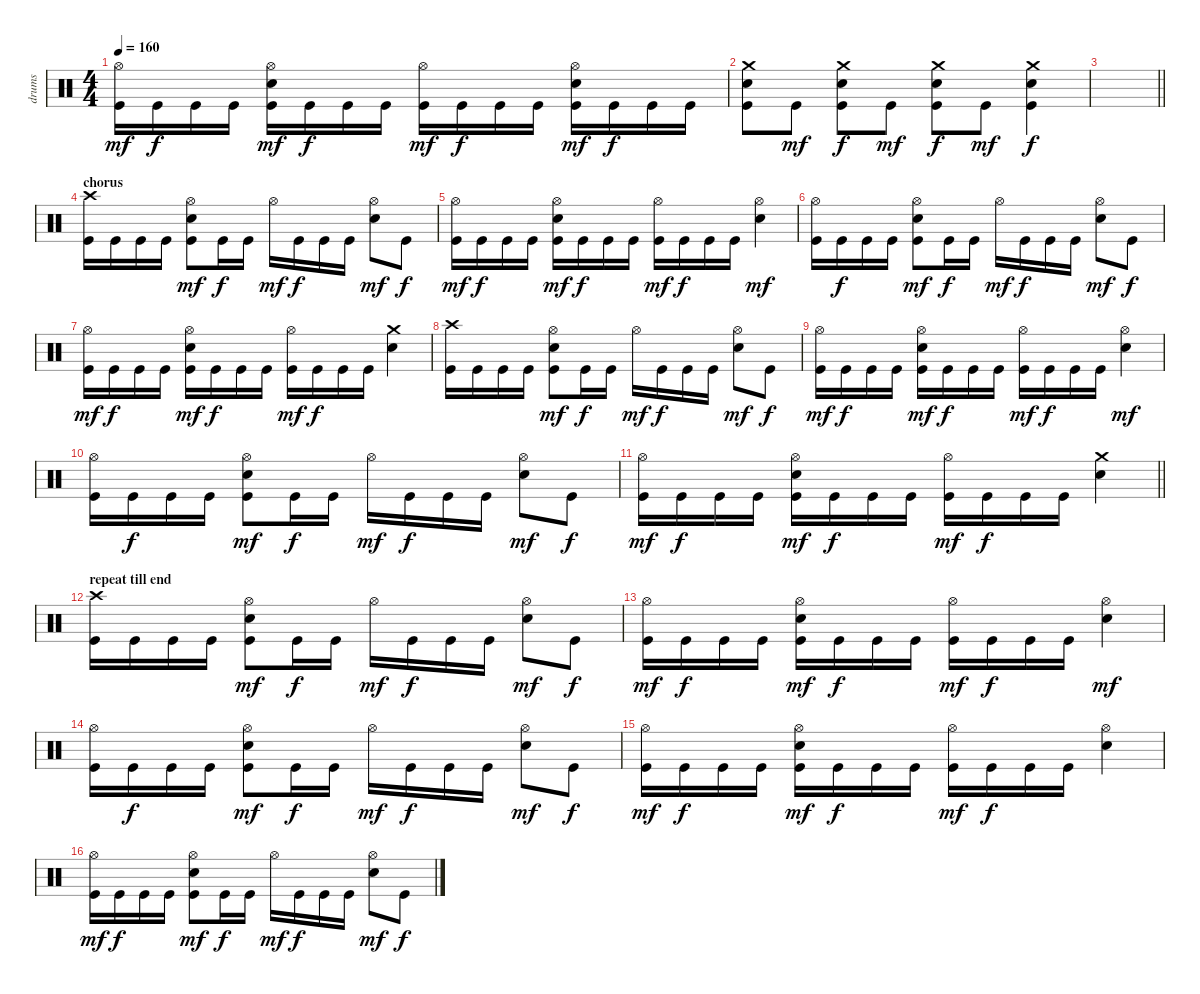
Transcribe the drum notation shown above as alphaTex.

\track ("drums" "drums") {instrument percussion}
\staff {score}
\articulation defaults
\ts (4 4)
\tempo 160
\clef neutral
\ks c
("Hi-Hat (open)" "Kick (hit)").16{dy mf} "Kick (hit)".16{dy f} "Kick (hit)".16 "Kick (hit)".16 ("Hi-Hat (open)" "Electric Snare (hit)" "Kick (hit)").16{dy mf} "Kick (hit)".16{dy f} "Kick (hit)".16 "Kick (hit)".16 ("Hi-Hat (open)" "Kick (hit)").16{dy mf} "Kick (hit)".16{dy f} "Kick (hit)".16 "Kick (hit)".16 ("Hi-Hat (open)" "Electric Snare (hit)" "Kick (hit)").16{dy mf} "Kick (hit)".16{dy f} "Kick (hit)".16 "Kick (hit)".16 |
("Crash medium (hit)" "Electric Snare (hit)" "Kick (hit)").8 "Kick (hit)".8{dy mf} ("Crash medium (hit)" "Electric Snare (hit)" "Kick (hit)").8{dy f} "Kick (hit)".8{dy mf} ("Crash medium (hit)" "Electric Snare (hit)" "Kick (hit)").8{dy f} "Kick (hit)".8{dy mf} ("Crash medium (hit)" "Electric Snare (hit)" "Kick (hit)").4{dy f} |
\barLineRight lightlight
|
\section ("" "chorus")
("Crash high (hit)" "Kick (hit)").16 "Kick (hit)".16 "Kick (hit)".16 "Kick (hit)".16 ("Hi-Hat (open)" "Electric Snare (hit)" "Kick (hit)").8{dy mf} "Kick (hit)".16{dy f} "Kick (hit)".16 "Hi-Hat (open)".16{dy mf} "Kick (hit)".16{dy f} "Kick (hit)".16 "Kick (hit)".16 ("Hi-Hat (open)" "Electric Snare (hit)").8{dy mf} "Kick (hit)".8{dy f} |
("Hi-Hat (open)" "Kick (hit)").16{dy mf} "Kick (hit)".16{dy f} "Kick (hit)".16 "Kick (hit)".16 ("Hi-Hat (open)" "Electric Snare (hit)" "Kick (hit)").16{dy mf} "Kick (hit)".16{dy f} "Kick (hit)".16 "Kick (hit)".16 ("Hi-Hat (open)" "Kick (hit)").16{dy mf} "Kick (hit)".16{dy f} "Kick (hit)".16 "Kick (hit)".16 ("Hi-Hat (open)" "Electric Snare (hit)").4{dy mf} |
("Hi-Hat (open)" "Kick (hit)").16 "Kick (hit)".16{dy f} "Kick (hit)".16 "Kick (hit)".16 ("Hi-Hat (open)" "Electric Snare (hit)" "Kick (hit)").8{dy mf} "Kick (hit)".16{dy f} "Kick (hit)".16 "Hi-Hat (open)".16{dy mf} "Kick (hit)".16{dy f} "Kick (hit)".16 "Kick (hit)".16 ("Hi-Hat (open)" "Electric Snare (hit)").8{dy mf} "Kick (hit)".8{dy f} |
("Hi-Hat (open)" "Kick (hit)").16{dy mf} "Kick (hit)".16{dy f} "Kick (hit)".16 "Kick (hit)".16 ("Hi-Hat (open)" "Electric Snare (hit)" "Kick (hit)").16{dy mf} "Kick (hit)".16{dy f} "Kick (hit)".16 "Kick (hit)".16 ("Hi-Hat (open)" "Kick (hit)").16{dy mf} "Kick (hit)".16{dy f} "Kick (hit)".16 "Kick (hit)".16 ("Crash medium (hit)" "Electric Snare (hit)").4 |
("Crash high (hit)" "Kick (hit)").16 "Kick (hit)".16 "Kick (hit)".16 "Kick (hit)".16 ("Hi-Hat (open)" "Electric Snare (hit)" "Kick (hit)").8{dy mf} "Kick (hit)".16{dy f} "Kick (hit)".16 "Hi-Hat (open)".16{dy mf} "Kick (hit)".16{dy f} "Kick (hit)".16 "Kick (hit)".16 ("Hi-Hat (open)" "Electric Snare (hit)").8{dy mf} "Kick (hit)".8{dy f} |
("Hi-Hat (open)" "Kick (hit)").16{dy mf} "Kick (hit)".16{dy f} "Kick (hit)".16 "Kick (hit)".16 ("Hi-Hat (open)" "Electric Snare (hit)" "Kick (hit)").16{dy mf} "Kick (hit)".16{dy f} "Kick (hit)".16 "Kick (hit)".16 ("Hi-Hat (open)" "Kick (hit)").16{dy mf} "Kick (hit)".16{dy f} "Kick (hit)".16 "Kick (hit)".16 ("Hi-Hat (open)" "Electric Snare (hit)").4{dy mf} |
("Hi-Hat (open)" "Kick (hit)").16 "Kick (hit)".16{dy f} "Kick (hit)".16 "Kick (hit)".16 ("Hi-Hat (open)" "Electric Snare (hit)" "Kick (hit)").8{dy mf} "Kick (hit)".16{dy f} "Kick (hit)".16 "Hi-Hat (open)".16{dy mf} "Kick (hit)".16{dy f} "Kick (hit)".16 "Kick (hit)".16 ("Hi-Hat (open)" "Electric Snare (hit)").8{dy mf} "Kick (hit)".8{dy f} |
\barLineRight lightlight
("Hi-Hat (open)" "Kick (hit)").16{dy mf} "Kick (hit)".16{dy f} "Kick (hit)".16 "Kick (hit)".16 ("Hi-Hat (open)" "Electric Snare (hit)" "Kick (hit)").16{dy mf} "Kick (hit)".16{dy f} "Kick (hit)".16 "Kick (hit)".16 ("Hi-Hat (open)" "Kick (hit)").16{dy mf} "Kick (hit)".16{dy f} "Kick (hit)".16 "Kick (hit)".16 ("Crash medium (hit)" "Electric Snare (hit)").4 |
\section ("" "repeat till end")
("Crash high (hit)" "Kick (hit)").16 "Kick (hit)".16 "Kick (hit)".16 "Kick (hit)".16 ("Hi-Hat (open)" "Electric Snare (hit)" "Kick (hit)").8{dy mf} "Kick (hit)".16{dy f} "Kick (hit)".16 "Hi-Hat (open)".16{dy mf} "Kick (hit)".16{dy f} "Kick (hit)".16 "Kick (hit)".16 ("Hi-Hat (open)" "Electric Snare (hit)").8{dy mf} "Kick (hit)".8{dy f} |
("Hi-Hat (open)" "Kick (hit)").16{dy mf} "Kick (hit)".16{dy f} "Kick (hit)".16 "Kick (hit)".16 ("Hi-Hat (open)" "Electric Snare (hit)" "Kick (hit)").16{dy mf} "Kick (hit)".16{dy f} "Kick (hit)".16 "Kick (hit)".16 ("Hi-Hat (open)" "Kick (hit)").16{dy mf} "Kick (hit)".16{dy f} "Kick (hit)".16 "Kick (hit)".16 ("Hi-Hat (open)" "Electric Snare (hit)").4{dy mf} |
("Hi-Hat (open)" "Kick (hit)").16 "Kick (hit)".16{dy f} "Kick (hit)".16 "Kick (hit)".16 ("Hi-Hat (open)" "Electric Snare (hit)" "Kick (hit)").8{dy mf} "Kick (hit)".16{dy f} "Kick (hit)".16 "Hi-Hat (open)".16{dy mf} "Kick (hit)".16{dy f} "Kick (hit)".16 "Kick (hit)".16 ("Hi-Hat (open)" "Electric Snare (hit)").8{dy mf} "Kick (hit)".8{dy f} |
("Hi-Hat (open)" "Kick (hit)").16{dy mf} "Kick (hit)".16{dy f} "Kick (hit)".16 "Kick (hit)".16 ("Hi-Hat (open)" "Electric Snare (hit)" "Kick (hit)").16{dy mf} "Kick (hit)".16{dy f} "Kick (hit)".16 "Kick (hit)".16 ("Hi-Hat (open)" "Kick (hit)").16{dy mf} "Kick (hit)".16{dy f} "Kick (hit)".16 "Kick (hit)".16 ("Hi-Hat (open)" "Electric Snare (hit)").4 |
("Hi-Hat (open)" "Kick (hit)").16{dy mf} "Kick (hit)".16{dy f} "Kick (hit)".16 "Kick (hit)".16 ("Hi-Hat (open)" "Electric Snare (hit)" "Kick (hit)").8{dy mf} "Kick (hit)".16{dy f} "Kick (hit)".16 "Hi-Hat (open)".16{dy mf} "Kick (hit)".16{dy f} "Kick (hit)".16 "Kick (hit)".16 ("Hi-Hat (open)" "Electric Snare (hit)").8{dy mf} "Kick (hit)".8{dy f}
